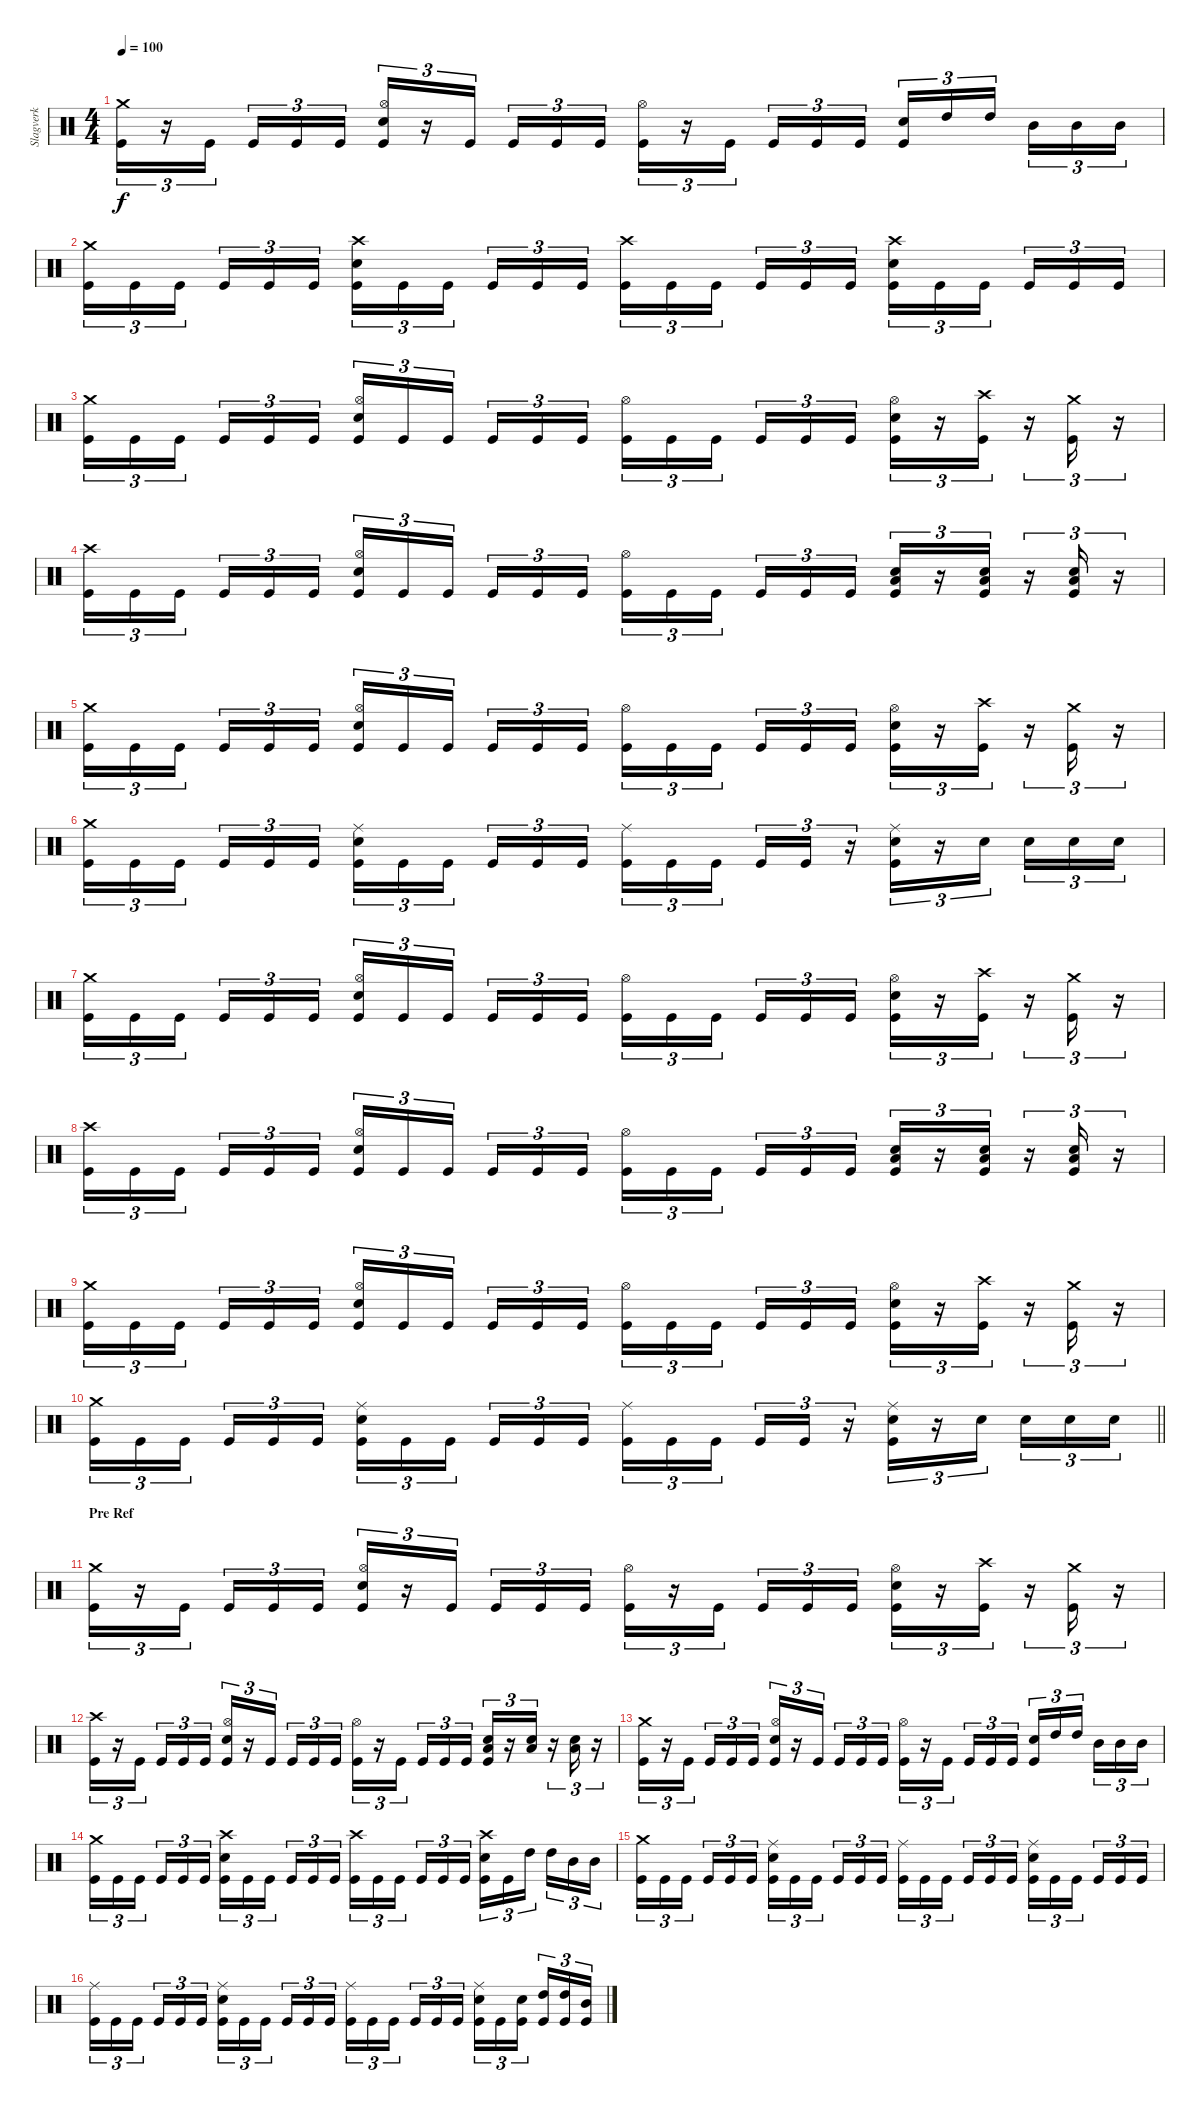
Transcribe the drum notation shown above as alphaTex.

\track ("Slagverk" "Slagverk") {solo instrument percussion}
\staff {score}
\articulation defaults
\ts (4 4)
\tempo 100
\clef neutral
\ks c
("Crash medium (hit)" "Kick (hit)").16{tu (3 2) dy f} r.16{tu (3 2)} "Kick (hit)".16{tu (3 2) beam splitsecondary} "Kick (hit)".16{tu (3 2)} "Kick (hit)".16{tu (3 2)} "Kick (hit)".16{tu (3 2)} ("Hi-Hat (open)" "Electric Snare (hit)" "Kick (hit)").16{tu (3 2)} r.16{tu (3 2)} "Kick (hit)".16{tu (3 2) beam splitsecondary} "Kick (hit)".16{tu (3 2)} "Kick (hit)".16{tu (3 2)} "Kick (hit)".16{tu (3 2)} ("Hi-Hat (open)" "Kick (hit)").16{tu (3 2)} r.16{tu (3 2)} "Kick (hit)".16{tu (3 2) beam splitsecondary} "Kick (hit)".16{tu (3 2)} "Kick (hit)".16{tu (3 2)} "Kick (hit)".16{tu (3 2)} ("Electric Snare (hit)" "Kick (hit)").16{tu (3 2)} "High Tom (hit)".16{tu (3 2)} "High Tom (hit)".16{tu (3 2) beam splitsecondary} "Mid Tom (hit)".16{tu (3 2)} "Mid Tom (hit)".16{tu (3 2)} "Mid Tom (hit)".16{tu (3 2)} |
("Crash medium (hit)" "Kick (hit)").16{tu (3 2)} "Kick (hit)".16{tu (3 2)} "Kick (hit)".16{tu (3 2) beam splitsecondary} "Kick (hit)".16{tu (3 2)} "Kick (hit)".16{tu (3 2)} "Kick (hit)".16{tu (3 2)} ("Crash high (hit)" "Electric Snare (hit)" "Kick (hit)").16{tu (3 2)} "Kick (hit)".16{tu (3 2)} "Kick (hit)".16{tu (3 2) beam splitsecondary} "Kick (hit)".16{tu (3 2)} "Kick (hit)".16{tu (3 2)} "Kick (hit)".16{tu (3 2)} ("Crash high (hit)" "Kick (hit)").16{tu (3 2)} "Kick (hit)".16{tu (3 2)} "Kick (hit)".16{tu (3 2) beam splitsecondary} "Kick (hit)".16{tu (3 2)} "Kick (hit)".16{tu (3 2)} "Kick (hit)".16{tu (3 2)} ("Crash high (hit)" "Electric Snare (hit)" "Kick (hit)").16{tu (3 2)} "Kick (hit)".16{tu (3 2)} "Kick (hit)".16{tu (3 2) beam splitsecondary} "Kick (hit)".16{tu (3 2)} "Kick (hit)".16{tu (3 2)} "Kick (hit)".16{tu (3 2)} |
("Crash medium (hit)" "Kick (hit)").16{tu (3 2)} "Kick (hit)".16{tu (3 2)} "Kick (hit)".16{tu (3 2) beam splitsecondary} "Kick (hit)".16{tu (3 2)} "Kick (hit)".16{tu (3 2)} "Kick (hit)".16{tu (3 2)} ("Hi-Hat (open)" "Electric Snare (hit)" "Kick (hit)").16{tu (3 2)} "Kick (hit)".16{tu (3 2)} "Kick (hit)".16{tu (3 2) beam splitsecondary} "Kick (hit)".16{tu (3 2)} "Kick (hit)".16{tu (3 2)} "Kick (hit)".16{tu (3 2)} ("Hi-Hat (open)" "Kick (hit)").16{tu (3 2)} "Kick (hit)".16{tu (3 2)} "Kick (hit)".16{tu (3 2) beam splitsecondary} "Kick (hit)".16{tu (3 2)} "Kick (hit)".16{tu (3 2)} "Kick (hit)".16{tu (3 2)} ("Hi-Hat (open)" "Electric Snare (hit)" "Kick (hit)").16{tu (3 2)} r.16{tu (3 2)} ("Crash high (hit)" "Kick (hit)").16{tu (3 2)} r.16{tu (3 2)} ("Crash medium (hit)" "Kick (hit)").16{tu (3 2)} r.16{tu (3 2)} |
("Crash high (hit)" "Kick (hit)").16{tu (3 2)} "Kick (hit)".16{tu (3 2)} "Kick (hit)".16{tu (3 2) beam splitsecondary} "Kick (hit)".16{tu (3 2)} "Kick (hit)".16{tu (3 2)} "Kick (hit)".16{tu (3 2)} ("Hi-Hat (open)" "Electric Snare (hit)" "Kick (hit)").16{tu (3 2)} "Kick (hit)".16{tu (3 2)} "Kick (hit)".16{tu (3 2) beam splitsecondary} "Kick (hit)".16{tu (3 2)} "Kick (hit)".16{tu (3 2)} "Kick (hit)".16{tu (3 2)} ("Hi-Hat (open)" "Kick (hit)").16{tu (3 2)} "Kick (hit)".16{tu (3 2)} "Kick (hit)".16{tu (3 2) beam splitsecondary} "Kick (hit)".16{tu (3 2)} "Kick (hit)".16{tu (3 2)} "Kick (hit)".16{tu (3 2)} ("Low Floor Tom (hit)" "Electric Snare (hit)" "Kick (hit)").16{tu (3 2)} r.16{tu (3 2)} ("Low Floor Tom (hit)" "Electric Snare (hit)" "Kick (hit)").16{tu (3 2)} r.16{tu (3 2)} ("Low Floor Tom (hit)" "Electric Snare (hit)" "Kick (hit)").16{tu (3 2)} r.16{tu (3 2)} |
("Crash medium (hit)" "Kick (hit)").16{tu (3 2)} "Kick (hit)".16{tu (3 2)} "Kick (hit)".16{tu (3 2) beam splitsecondary} "Kick (hit)".16{tu (3 2)} "Kick (hit)".16{tu (3 2)} "Kick (hit)".16{tu (3 2)} ("Hi-Hat (open)" "Electric Snare (hit)" "Kick (hit)").16{tu (3 2)} "Kick (hit)".16{tu (3 2)} "Kick (hit)".16{tu (3 2) beam splitsecondary} "Kick (hit)".16{tu (3 2)} "Kick (hit)".16{tu (3 2)} "Kick (hit)".16{tu (3 2)} ("Hi-Hat (open)" "Kick (hit)").16{tu (3 2)} "Kick (hit)".16{tu (3 2)} "Kick (hit)".16{tu (3 2) beam splitsecondary} "Kick (hit)".16{tu (3 2)} "Kick (hit)".16{tu (3 2)} "Kick (hit)".16{tu (3 2)} ("Hi-Hat (open)" "Electric Snare (hit)" "Kick (hit)").16{tu (3 2)} r.16{tu (3 2)} ("Crash high (hit)" "Kick (hit)").16{tu (3 2)} r.16{tu (3 2)} ("Crash medium (hit)" "Kick (hit)").16{tu (3 2)} r.16{tu (3 2)} |
("Crash medium (hit)" "Kick (hit)").16{tu (3 2)} "Kick (hit)".16{tu (3 2)} "Kick (hit)".16{tu (3 2) beam splitsecondary} "Kick (hit)".16{tu (3 2)} "Kick (hit)".16{tu (3 2)} "Kick (hit)".16{tu (3 2)} ("Ride (middle)" "Electric Snare (hit)" "Kick (hit)").16{tu (3 2)} "Kick (hit)".16{tu (3 2)} "Kick (hit)".16{tu (3 2) beam splitsecondary} "Kick (hit)".16{tu (3 2)} "Kick (hit)".16{tu (3 2)} "Kick (hit)".16{tu (3 2)} ("Ride (middle)" "Kick (hit)").16{tu (3 2)} "Kick (hit)".16{tu (3 2)} "Kick (hit)".16{tu (3 2) beam splitsecondary} "Kick (hit)".16{tu (3 2)} "Kick (hit)".16{tu (3 2)} r.16{tu (3 2)} ("Ride (middle)" "Electric Snare (hit)" "Kick (hit)").16{tu (3 2)} r.16{tu (3 2)} "Electric Snare (hit)".16{tu (3 2) beam splitsecondary} "Electric Snare (hit)".16{tu (3 2)} "Electric Snare (hit)".16{tu (3 2)} "Electric Snare (hit)".16{tu (3 2)} |
("Crash medium (hit)" "Kick (hit)").16{tu (3 2)} "Kick (hit)".16{tu (3 2)} "Kick (hit)".16{tu (3 2) beam splitsecondary} "Kick (hit)".16{tu (3 2)} "Kick (hit)".16{tu (3 2)} "Kick (hit)".16{tu (3 2)} ("Hi-Hat (open)" "Electric Snare (hit)" "Kick (hit)").16{tu (3 2)} "Kick (hit)".16{tu (3 2)} "Kick (hit)".16{tu (3 2) beam splitsecondary} "Kick (hit)".16{tu (3 2)} "Kick (hit)".16{tu (3 2)} "Kick (hit)".16{tu (3 2)} ("Hi-Hat (open)" "Kick (hit)").16{tu (3 2)} "Kick (hit)".16{tu (3 2)} "Kick (hit)".16{tu (3 2) beam splitsecondary} "Kick (hit)".16{tu (3 2)} "Kick (hit)".16{tu (3 2)} "Kick (hit)".16{tu (3 2)} ("Hi-Hat (open)" "Electric Snare (hit)" "Kick (hit)").16{tu (3 2)} r.16{tu (3 2)} ("Crash high (hit)" "Kick (hit)").16{tu (3 2)} r.16{tu (3 2)} ("Crash medium (hit)" "Kick (hit)").16{tu (3 2)} r.16{tu (3 2)} |
("Crash high (hit)" "Kick (hit)").16{tu (3 2)} "Kick (hit)".16{tu (3 2)} "Kick (hit)".16{tu (3 2) beam splitsecondary} "Kick (hit)".16{tu (3 2)} "Kick (hit)".16{tu (3 2)} "Kick (hit)".16{tu (3 2)} ("Hi-Hat (open)" "Electric Snare (hit)" "Kick (hit)").16{tu (3 2)} "Kick (hit)".16{tu (3 2)} "Kick (hit)".16{tu (3 2) beam splitsecondary} "Kick (hit)".16{tu (3 2)} "Kick (hit)".16{tu (3 2)} "Kick (hit)".16{tu (3 2)} ("Hi-Hat (open)" "Kick (hit)").16{tu (3 2)} "Kick (hit)".16{tu (3 2)} "Kick (hit)".16{tu (3 2) beam splitsecondary} "Kick (hit)".16{tu (3 2)} "Kick (hit)".16{tu (3 2)} "Kick (hit)".16{tu (3 2)} ("Low Floor Tom (hit)" "Electric Snare (hit)" "Kick (hit)").16{tu (3 2)} r.16{tu (3 2)} ("Low Floor Tom (hit)" "Electric Snare (hit)" "Kick (hit)").16{tu (3 2)} r.16{tu (3 2)} ("Low Floor Tom (hit)" "Electric Snare (hit)" "Kick (hit)").16{tu (3 2)} r.16{tu (3 2)} |
("Crash medium (hit)" "Kick (hit)").16{tu (3 2)} "Kick (hit)".16{tu (3 2)} "Kick (hit)".16{tu (3 2) beam splitsecondary} "Kick (hit)".16{tu (3 2)} "Kick (hit)".16{tu (3 2)} "Kick (hit)".16{tu (3 2)} ("Hi-Hat (open)" "Electric Snare (hit)" "Kick (hit)").16{tu (3 2)} "Kick (hit)".16{tu (3 2)} "Kick (hit)".16{tu (3 2) beam splitsecondary} "Kick (hit)".16{tu (3 2)} "Kick (hit)".16{tu (3 2)} "Kick (hit)".16{tu (3 2)} ("Hi-Hat (open)" "Kick (hit)").16{tu (3 2)} "Kick (hit)".16{tu (3 2)} "Kick (hit)".16{tu (3 2) beam splitsecondary} "Kick (hit)".16{tu (3 2)} "Kick (hit)".16{tu (3 2)} "Kick (hit)".16{tu (3 2)} ("Hi-Hat (open)" "Electric Snare (hit)" "Kick (hit)").16{tu (3 2)} r.16{tu (3 2)} ("Crash high (hit)" "Kick (hit)").16{tu (3 2)} r.16{tu (3 2)} ("Crash medium (hit)" "Kick (hit)").16{tu (3 2)} r.16{tu (3 2)} |
\barLineRight lightlight
("Crash medium (hit)" "Kick (hit)").16{tu (3 2)} "Kick (hit)".16{tu (3 2)} "Kick (hit)".16{tu (3 2) beam splitsecondary} "Kick (hit)".16{tu (3 2)} "Kick (hit)".16{tu (3 2)} "Kick (hit)".16{tu (3 2)} ("Ride (middle)" "Electric Snare (hit)" "Kick (hit)").16{tu (3 2)} "Kick (hit)".16{tu (3 2)} "Kick (hit)".16{tu (3 2) beam splitsecondary} "Kick (hit)".16{tu (3 2)} "Kick (hit)".16{tu (3 2)} "Kick (hit)".16{tu (3 2)} ("Ride (middle)" "Kick (hit)").16{tu (3 2)} "Kick (hit)".16{tu (3 2)} "Kick (hit)".16{tu (3 2) beam splitsecondary} "Kick (hit)".16{tu (3 2)} "Kick (hit)".16{tu (3 2)} r.16{tu (3 2)} ("Ride (middle)" "Electric Snare (hit)" "Kick (hit)").16{tu (3 2)} r.16{tu (3 2)} "Electric Snare (hit)".16{tu (3 2) beam splitsecondary} "Electric Snare (hit)".16{tu (3 2)} "Electric Snare (hit)".16{tu (3 2)} "Electric Snare (hit)".16{tu (3 2)} |
\section ("" "Pre Ref")
("Crash medium (hit)" "Kick (hit)").16{tu (3 2)} r.16{tu (3 2)} "Kick (hit)".16{tu (3 2) beam splitsecondary} "Kick (hit)".16{tu (3 2)} "Kick (hit)".16{tu (3 2)} "Kick (hit)".16{tu (3 2)} ("Hi-Hat (open)" "Electric Snare (hit)" "Kick (hit)").16{tu (3 2)} r.16{tu (3 2)} "Kick (hit)".16{tu (3 2) beam splitsecondary} "Kick (hit)".16{tu (3 2)} "Kick (hit)".16{tu (3 2)} "Kick (hit)".16{tu (3 2)} ("Hi-Hat (open)" "Kick (hit)").16{tu (3 2)} r.16{tu (3 2)} "Kick (hit)".16{tu (3 2) beam splitsecondary} "Kick (hit)".16{tu (3 2)} "Kick (hit)".16{tu (3 2)} "Kick (hit)".16{tu (3 2)} ("Hi-Hat (open)" "Electric Snare (hit)" "Kick (hit)").16{tu (3 2)} r.16{tu (3 2)} ("Crash high (hit)" "Kick (hit)").16{tu (3 2)} r.16{tu (3 2)} ("Crash medium (hit)" "Kick (hit)").16{tu (3 2)} r.16{tu (3 2)} |
("Crash high (hit)" "Kick (hit)").16{tu (3 2)} r.16{tu (3 2)} "Kick (hit)".16{tu (3 2) beam splitsecondary} "Kick (hit)".16{tu (3 2)} "Kick (hit)".16{tu (3 2)} "Kick (hit)".16{tu (3 2)} ("Hi-Hat (open)" "Electric Snare (hit)" "Kick (hit)").16{tu (3 2)} r.16{tu (3 2)} "Kick (hit)".16{tu (3 2) beam splitsecondary} "Kick (hit)".16{tu (3 2)} "Kick (hit)".16{tu (3 2)} "Kick (hit)".16{tu (3 2)} ("Hi-Hat (open)" "Kick (hit)").16{tu (3 2)} r.16{tu (3 2)} "Kick (hit)".16{tu (3 2) beam splitsecondary} "Kick (hit)".16{tu (3 2)} "Kick (hit)".16{tu (3 2)} "Kick (hit)".16{tu (3 2)} ("Low Floor Tom (hit)" "Electric Snare (hit)" "Kick (hit)").16{tu (3 2)} r.16{tu (3 2)} ("Low Floor Tom (hit)" "Electric Snare (hit)").16{tu (3 2)} r.16{tu (3 2)} ("Low Floor Tom (hit)" "Electric Snare (hit)").16{tu (3 2)} r.16{tu (3 2)} |
("Crash medium (hit)" "Kick (hit)").16{tu (3 2)} r.16{tu (3 2)} "Kick (hit)".16{tu (3 2) beam splitsecondary} "Kick (hit)".16{tu (3 2)} "Kick (hit)".16{tu (3 2)} "Kick (hit)".16{tu (3 2)} ("Hi-Hat (open)" "Electric Snare (hit)" "Kick (hit)").16{tu (3 2)} r.16{tu (3 2)} "Kick (hit)".16{tu (3 2) beam splitsecondary} "Kick (hit)".16{tu (3 2)} "Kick (hit)".16{tu (3 2)} "Kick (hit)".16{tu (3 2)} ("Hi-Hat (open)" "Kick (hit)").16{tu (3 2)} r.16{tu (3 2)} "Kick (hit)".16{tu (3 2) beam splitsecondary} "Kick (hit)".16{tu (3 2)} "Kick (hit)".16{tu (3 2)} "Kick (hit)".16{tu (3 2)} ("Electric Snare (hit)" "Kick (hit)").16{tu (3 2)} "High Tom (hit)".16{tu (3 2)} "High Tom (hit)".16{tu (3 2) beam splitsecondary} "Mid Tom (hit)".16{tu (3 2)} "Mid Tom (hit)".16{tu (3 2)} "Mid Tom (hit)".16{tu (3 2)} |
("Crash medium (hit)" "Kick (hit)").16{tu (3 2)} "Kick (hit)".16{tu (3 2)} "Kick (hit)".16{tu (3 2) beam splitsecondary} "Kick (hit)".16{tu (3 2)} "Kick (hit)".16{tu (3 2)} "Kick (hit)".16{tu (3 2)} ("Crash high (hit)" "Electric Snare (hit)" "Kick (hit)").16{tu (3 2)} "Kick (hit)".16{tu (3 2)} "Kick (hit)".16{tu (3 2) beam splitsecondary} "Kick (hit)".16{tu (3 2)} "Kick (hit)".16{tu (3 2)} "Kick (hit)".16{tu (3 2)} ("Crash high (hit)" "Kick (hit)").16{tu (3 2)} "Kick (hit)".16{tu (3 2)} "Kick (hit)".16{tu (3 2) beam splitsecondary} "Kick (hit)".16{tu (3 2)} "Kick (hit)".16{tu (3 2)} "Kick (hit)".16{tu (3 2)} ("Crash high (hit)" "Electric Snare (hit)" "Kick (hit)").16{tu (3 2)} "Kick (hit)".16{tu (3 2)} "High Tom (hit)".16{tu (3 2) beam splitsecondary} "High Tom (hit)".16{tu (3 2)} "Mid Tom (hit)".16{tu (3 2)} "Mid Tom (hit)".16{tu (3 2)} |
("Crash medium (hit)" "Kick (hit)").16{tu (3 2)} "Kick (hit)".16{tu (3 2)} "Kick (hit)".16{tu (3 2) beam splitsecondary} "Kick (hit)".16{tu (3 2)} "Kick (hit)".16{tu (3 2)} "Kick (hit)".16{tu (3 2)} ("Ride (middle)" "Electric Snare (hit)" "Kick (hit)").16{tu (3 2)} "Kick (hit)".16{tu (3 2)} "Kick (hit)".16{tu (3 2) beam splitsecondary} "Kick (hit)".16{tu (3 2)} "Kick (hit)".16{tu (3 2)} "Kick (hit)".16{tu (3 2)} ("Ride (middle)" "Kick (hit)").16{tu (3 2)} "Kick (hit)".16{tu (3 2)} "Kick (hit)".16{tu (3 2) beam splitsecondary} "Kick (hit)".16{tu (3 2)} "Kick (hit)".16{tu (3 2)} "Kick (hit)".16{tu (3 2)} ("Ride (middle)" "Electric Snare (hit)" "Kick (hit)").16{tu (3 2)} "Kick (hit)".16{tu (3 2)} "Kick (hit)".16{tu (3 2) beam splitsecondary} "Kick (hit)".16{tu (3 2)} "Kick (hit)".16{tu (3 2)} "Kick (hit)".16{tu (3 2)} |
("Ride (middle)" "Kick (hit)").16{tu (3 2)} "Kick (hit)".16{tu (3 2)} "Kick (hit)".16{tu (3 2) beam splitsecondary} "Kick (hit)".16{tu (3 2)} "Kick (hit)".16{tu (3 2)} "Kick (hit)".16{tu (3 2)} ("Ride (middle)" "Electric Snare (hit)" "Kick (hit)").16{tu (3 2)} "Kick (hit)".16{tu (3 2)} "Kick (hit)".16{tu (3 2) beam splitsecondary} "Kick (hit)".16{tu (3 2)} "Kick (hit)".16{tu (3 2)} "Kick (hit)".16{tu (3 2)} ("Ride (middle)" "Kick (hit)").16{tu (3 2)} "Kick (hit)".16{tu (3 2)} "Kick (hit)".16{tu (3 2) beam splitsecondary} "Kick (hit)".16{tu (3 2)} "Kick (hit)".16{tu (3 2)} "Kick (hit)".16{tu (3 2)} ("Ride (middle)" "Electric Snare (hit)" "Kick (hit)").16{tu (3 2)} "Kick (hit)".16{tu (3 2)} ("Electric Snare (hit)" "Kick (hit)").16{tu (3 2) beam splitsecondary} ("High Tom (hit)" "Kick (hit)").16{tu (3 2)} ("High Tom (hit)" "Kick (hit)").16{tu (3 2)} ("Mid Tom (hit)" "Kick (hit)").16{tu (3 2)}
